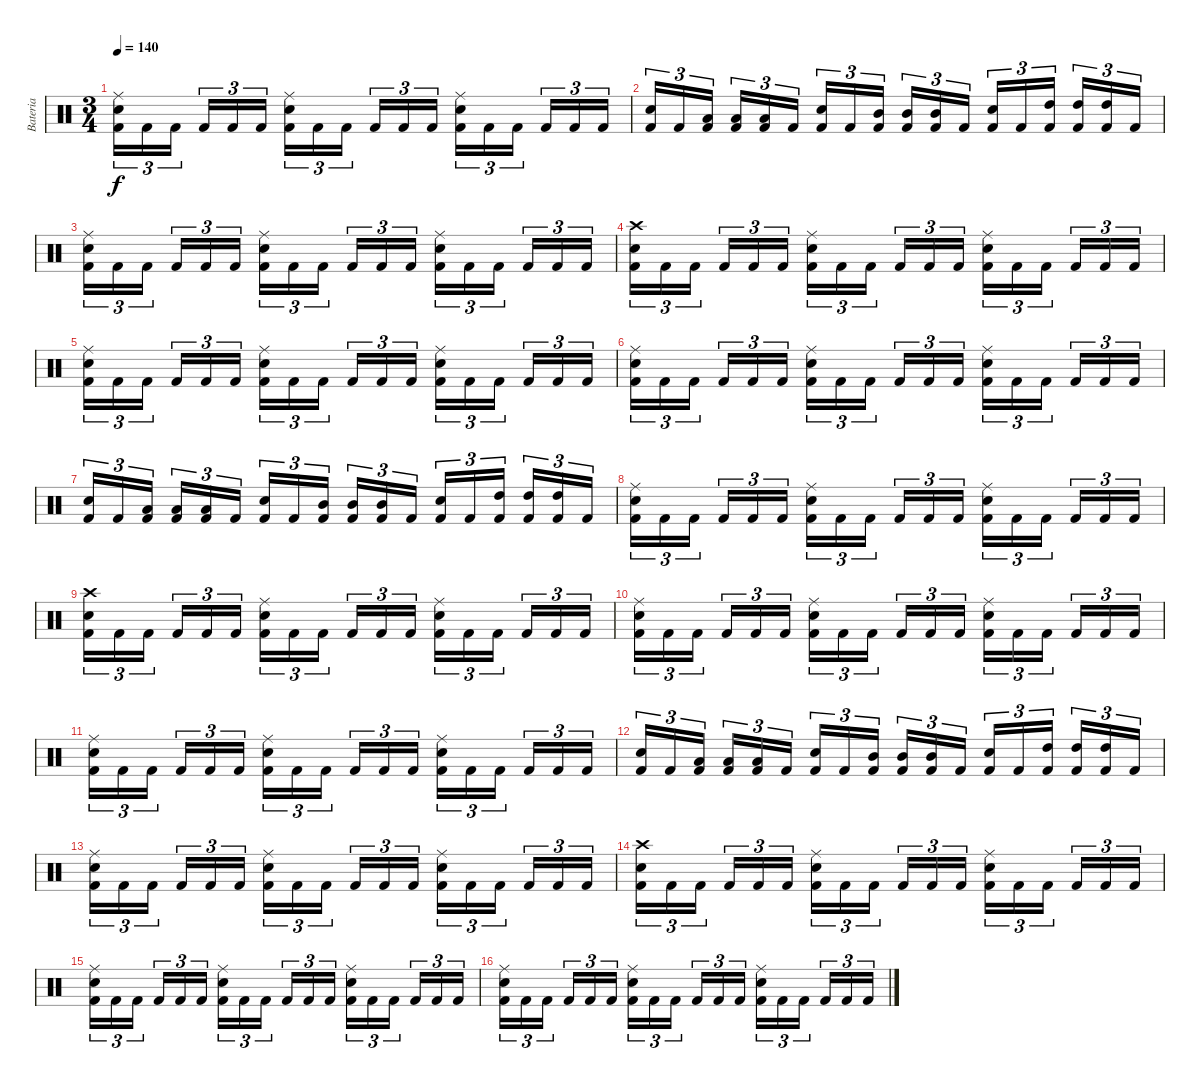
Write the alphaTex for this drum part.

\track ("Bateria" "Bateria") {instrument percussion}
\staff {score}
\articulation defaults
\ts (3 4)
\tempo 140
\clef neutral
\ks c
("Kick (hit) 2" "Electric Snare (hit)" "Ride (middle)").16{tu (3 2) dy f} "Kick (hit) 2".16{tu (3 2)} "Kick (hit) 2".16{tu (3 2)} "Kick (hit) 2".16{tu (3 2)} "Kick (hit) 2".16{tu (3 2)} "Kick (hit) 2".16{tu (3 2)} ("Kick (hit) 2" "Electric Snare (hit)" "Ride (middle)").16{tu (3 2)} "Kick (hit) 2".16{tu (3 2)} "Kick (hit) 2".16{tu (3 2)} "Kick (hit) 2".16{tu (3 2)} "Kick (hit) 2".16{tu (3 2)} "Kick (hit) 2".16{tu (3 2)} ("Kick (hit) 2" "Electric Snare (hit)" "Ride (middle)").16{tu (3 2)} "Kick (hit) 2".16{tu (3 2)} "Kick (hit) 2".16{tu (3 2)} "Kick (hit) 2".16{tu (3 2)} "Kick (hit) 2".16{tu (3 2)} "Kick (hit) 2".16{tu (3 2)} |
("Kick (hit) 2" "Electric Snare (hit)").16{tu (3 2)} "Kick (hit) 2".16{tu (3 2)} ("Kick (hit) 2" "Low Tom (hit)").16{tu (3 2)} ("Kick (hit) 2" "Low Tom (hit)").16{tu (3 2)} ("Kick (hit) 2" "Low Tom (hit)").16{tu (3 2)} "Kick (hit) 2".16{tu (3 2)} ("Kick (hit) 2" "Electric Snare (hit)").16{tu (3 2)} "Kick (hit) 2".16{tu (3 2)} ("Kick (hit) 2" "Mid Tom (hit)").16{tu (3 2)} ("Kick (hit) 2" "Mid Tom (hit)").16{tu (3 2)} ("Kick (hit) 2" "Mid Tom (hit)").16{tu (3 2)} "Kick (hit) 2".16{tu (3 2)} ("Kick (hit) 2" "Electric Snare (hit)").16{tu (3 2)} "Kick (hit) 2".16{tu (3 2)} ("Kick (hit) 2" "High Tom (hit)").16{tu (3 2)} ("Kick (hit) 2" "High Tom (hit)").16{tu (3 2)} ("Kick (hit) 2" "High Tom (hit)").16{tu (3 2)} "Kick (hit) 2".16{tu (3 2)} |
("Kick (hit) 2" "Electric Snare (hit)" "Ride (middle)").16{tu (3 2)} "Kick (hit) 2".16{tu (3 2)} "Kick (hit) 2".16{tu (3 2)} "Kick (hit) 2".16{tu (3 2)} "Kick (hit) 2".16{tu (3 2)} "Kick (hit) 2".16{tu (3 2)} ("Kick (hit) 2" "Electric Snare (hit)" "Ride (middle)").16{tu (3 2)} "Kick (hit) 2".16{tu (3 2)} "Kick (hit) 2".16{tu (3 2)} "Kick (hit) 2".16{tu (3 2)} "Kick (hit) 2".16{tu (3 2)} "Kick (hit) 2".16{tu (3 2)} ("Kick (hit) 2" "Electric Snare (hit)" "Ride (middle)").16{tu (3 2)} "Kick (hit) 2".16{tu (3 2)} "Kick (hit) 2".16{tu (3 2)} "Kick (hit) 2".16{tu (3 2)} "Kick (hit) 2".16{tu (3 2)} "Kick (hit) 2".16{tu (3 2)} |
("Kick (hit) 2" "Electric Snare (hit)" "Crash high (hit)").16{tu (3 2)} "Kick (hit) 2".16{tu (3 2)} "Kick (hit) 2".16{tu (3 2)} "Kick (hit) 2".16{tu (3 2)} "Kick (hit) 2".16{tu (3 2)} "Kick (hit) 2".16{tu (3 2)} ("Kick (hit) 2" "Electric Snare (hit)" "Ride (middle)").16{tu (3 2)} "Kick (hit) 2".16{tu (3 2)} "Kick (hit) 2".16{tu (3 2)} "Kick (hit) 2".16{tu (3 2)} "Kick (hit) 2".16{tu (3 2)} "Kick (hit) 2".16{tu (3 2)} ("Kick (hit) 2" "Electric Snare (hit)" "Ride (middle)").16{tu (3 2)} "Kick (hit) 2".16{tu (3 2)} "Kick (hit) 2".16{tu (3 2)} "Kick (hit) 2".16{tu (3 2)} "Kick (hit) 2".16{tu (3 2)} "Kick (hit) 2".16{tu (3 2)} |
("Kick (hit) 2" "Electric Snare (hit)" "Ride (middle)").16{tu (3 2)} "Kick (hit) 2".16{tu (3 2)} "Kick (hit) 2".16{tu (3 2)} "Kick (hit) 2".16{tu (3 2)} "Kick (hit) 2".16{tu (3 2)} "Kick (hit) 2".16{tu (3 2)} ("Kick (hit) 2" "Electric Snare (hit)" "Ride (middle)").16{tu (3 2)} "Kick (hit) 2".16{tu (3 2)} "Kick (hit) 2".16{tu (3 2)} "Kick (hit) 2".16{tu (3 2)} "Kick (hit) 2".16{tu (3 2)} "Kick (hit) 2".16{tu (3 2)} ("Kick (hit) 2" "Electric Snare (hit)" "Ride (middle)").16{tu (3 2)} "Kick (hit) 2".16{tu (3 2)} "Kick (hit) 2".16{tu (3 2)} "Kick (hit) 2".16{tu (3 2)} "Kick (hit) 2".16{tu (3 2)} "Kick (hit) 2".16{tu (3 2)} |
("Kick (hit) 2" "Electric Snare (hit)" "Ride (middle)").16{tu (3 2)} "Kick (hit) 2".16{tu (3 2)} "Kick (hit) 2".16{tu (3 2)} "Kick (hit) 2".16{tu (3 2)} "Kick (hit) 2".16{tu (3 2)} "Kick (hit) 2".16{tu (3 2)} ("Kick (hit) 2" "Electric Snare (hit)" "Ride (middle)").16{tu (3 2)} "Kick (hit) 2".16{tu (3 2)} "Kick (hit) 2".16{tu (3 2)} "Kick (hit) 2".16{tu (3 2)} "Kick (hit) 2".16{tu (3 2)} "Kick (hit) 2".16{tu (3 2)} ("Kick (hit) 2" "Electric Snare (hit)" "Ride (middle)").16{tu (3 2)} "Kick (hit) 2".16{tu (3 2)} "Kick (hit) 2".16{tu (3 2)} "Kick (hit) 2".16{tu (3 2)} "Kick (hit) 2".16{tu (3 2)} "Kick (hit) 2".16{tu (3 2)} |
("Kick (hit) 2" "Electric Snare (hit)").16{tu (3 2)} "Kick (hit) 2".16{tu (3 2)} ("Kick (hit) 2" "Low Tom (hit)").16{tu (3 2)} ("Kick (hit) 2" "Low Tom (hit)").16{tu (3 2)} ("Kick (hit) 2" "Low Tom (hit)").16{tu (3 2)} "Kick (hit) 2".16{tu (3 2)} ("Kick (hit) 2" "Electric Snare (hit)").16{tu (3 2)} "Kick (hit) 2".16{tu (3 2)} ("Kick (hit) 2" "Mid Tom (hit)").16{tu (3 2)} ("Kick (hit) 2" "Mid Tom (hit)").16{tu (3 2)} ("Kick (hit) 2" "Mid Tom (hit)").16{tu (3 2)} "Kick (hit) 2".16{tu (3 2)} ("Kick (hit) 2" "Electric Snare (hit)").16{tu (3 2)} "Kick (hit) 2".16{tu (3 2)} ("Kick (hit) 2" "High Tom (hit)").16{tu (3 2)} ("Kick (hit) 2" "High Tom (hit)").16{tu (3 2)} ("Kick (hit) 2" "High Tom (hit)").16{tu (3 2)} "Kick (hit) 2".16{tu (3 2)} |
("Kick (hit) 2" "Electric Snare (hit)" "Ride (middle)").16{tu (3 2)} "Kick (hit) 2".16{tu (3 2)} "Kick (hit) 2".16{tu (3 2)} "Kick (hit) 2".16{tu (3 2)} "Kick (hit) 2".16{tu (3 2)} "Kick (hit) 2".16{tu (3 2)} ("Kick (hit) 2" "Electric Snare (hit)" "Ride (middle)").16{tu (3 2)} "Kick (hit) 2".16{tu (3 2)} "Kick (hit) 2".16{tu (3 2)} "Kick (hit) 2".16{tu (3 2)} "Kick (hit) 2".16{tu (3 2)} "Kick (hit) 2".16{tu (3 2)} ("Kick (hit) 2" "Electric Snare (hit)" "Ride (middle)").16{tu (3 2)} "Kick (hit) 2".16{tu (3 2)} "Kick (hit) 2".16{tu (3 2)} "Kick (hit) 2".16{tu (3 2)} "Kick (hit) 2".16{tu (3 2)} "Kick (hit) 2".16{tu (3 2)} |
("Kick (hit) 2" "Electric Snare (hit)" "Crash high (hit)").16{tu (3 2)} "Kick (hit) 2".16{tu (3 2)} "Kick (hit) 2".16{tu (3 2)} "Kick (hit) 2".16{tu (3 2)} "Kick (hit) 2".16{tu (3 2)} "Kick (hit) 2".16{tu (3 2)} ("Kick (hit) 2" "Electric Snare (hit)" "Ride (middle)").16{tu (3 2)} "Kick (hit) 2".16{tu (3 2)} "Kick (hit) 2".16{tu (3 2)} "Kick (hit) 2".16{tu (3 2)} "Kick (hit) 2".16{tu (3 2)} "Kick (hit) 2".16{tu (3 2)} ("Kick (hit) 2" "Electric Snare (hit)" "Ride (middle)").16{tu (3 2)} "Kick (hit) 2".16{tu (3 2)} "Kick (hit) 2".16{tu (3 2)} "Kick (hit) 2".16{tu (3 2)} "Kick (hit) 2".16{tu (3 2)} "Kick (hit) 2".16{tu (3 2)} |
("Kick (hit) 2" "Electric Snare (hit)" "Ride (middle)").16{tu (3 2)} "Kick (hit) 2".16{tu (3 2)} "Kick (hit) 2".16{tu (3 2)} "Kick (hit) 2".16{tu (3 2)} "Kick (hit) 2".16{tu (3 2)} "Kick (hit) 2".16{tu (3 2)} ("Kick (hit) 2" "Electric Snare (hit)" "Ride (middle)").16{tu (3 2)} "Kick (hit) 2".16{tu (3 2)} "Kick (hit) 2".16{tu (3 2)} "Kick (hit) 2".16{tu (3 2)} "Kick (hit) 2".16{tu (3 2)} "Kick (hit) 2".16{tu (3 2)} ("Kick (hit) 2" "Electric Snare (hit)" "Ride (middle)").16{tu (3 2)} "Kick (hit) 2".16{tu (3 2)} "Kick (hit) 2".16{tu (3 2)} "Kick (hit) 2".16{tu (3 2)} "Kick (hit) 2".16{tu (3 2)} "Kick (hit) 2".16{tu (3 2)} |
("Kick (hit) 2" "Electric Snare (hit)" "Ride (middle)").16{tu (3 2)} "Kick (hit) 2".16{tu (3 2)} "Kick (hit) 2".16{tu (3 2)} "Kick (hit) 2".16{tu (3 2)} "Kick (hit) 2".16{tu (3 2)} "Kick (hit) 2".16{tu (3 2)} ("Kick (hit) 2" "Electric Snare (hit)" "Ride (middle)").16{tu (3 2)} "Kick (hit) 2".16{tu (3 2)} "Kick (hit) 2".16{tu (3 2)} "Kick (hit) 2".16{tu (3 2)} "Kick (hit) 2".16{tu (3 2)} "Kick (hit) 2".16{tu (3 2)} ("Kick (hit) 2" "Electric Snare (hit)" "Ride (middle)").16{tu (3 2)} "Kick (hit) 2".16{tu (3 2)} "Kick (hit) 2".16{tu (3 2)} "Kick (hit) 2".16{tu (3 2)} "Kick (hit) 2".16{tu (3 2)} "Kick (hit) 2".16{tu (3 2)} |
("Kick (hit) 2" "Electric Snare (hit)").16{tu (3 2)} "Kick (hit) 2".16{tu (3 2)} ("Kick (hit) 2" "Low Tom (hit)").16{tu (3 2)} ("Kick (hit) 2" "Low Tom (hit)").16{tu (3 2)} ("Kick (hit) 2" "Low Tom (hit)").16{tu (3 2)} "Kick (hit) 2".16{tu (3 2)} ("Kick (hit) 2" "Electric Snare (hit)").16{tu (3 2)} "Kick (hit) 2".16{tu (3 2)} ("Kick (hit) 2" "Mid Tom (hit)").16{tu (3 2)} ("Kick (hit) 2" "Mid Tom (hit)").16{tu (3 2)} ("Kick (hit) 2" "Mid Tom (hit)").16{tu (3 2)} "Kick (hit) 2".16{tu (3 2)} ("Kick (hit) 2" "Electric Snare (hit)").16{tu (3 2)} "Kick (hit) 2".16{tu (3 2)} ("Kick (hit) 2" "High Tom (hit)").16{tu (3 2)} ("Kick (hit) 2" "High Tom (hit)").16{tu (3 2)} ("Kick (hit) 2" "High Tom (hit)").16{tu (3 2)} "Kick (hit) 2".16{tu (3 2)} |
("Kick (hit) 2" "Electric Snare (hit)" "Ride (middle)").16{tu (3 2)} "Kick (hit) 2".16{tu (3 2)} "Kick (hit) 2".16{tu (3 2)} "Kick (hit) 2".16{tu (3 2)} "Kick (hit) 2".16{tu (3 2)} "Kick (hit) 2".16{tu (3 2)} ("Kick (hit) 2" "Electric Snare (hit)" "Ride (middle)").16{tu (3 2)} "Kick (hit) 2".16{tu (3 2)} "Kick (hit) 2".16{tu (3 2)} "Kick (hit) 2".16{tu (3 2)} "Kick (hit) 2".16{tu (3 2)} "Kick (hit) 2".16{tu (3 2)} ("Kick (hit) 2" "Electric Snare (hit)" "Ride (middle)").16{tu (3 2)} "Kick (hit) 2".16{tu (3 2)} "Kick (hit) 2".16{tu (3 2)} "Kick (hit) 2".16{tu (3 2)} "Kick (hit) 2".16{tu (3 2)} "Kick (hit) 2".16{tu (3 2)} |
("Kick (hit) 2" "Electric Snare (hit)" "Crash high (hit)").16{tu (3 2)} "Kick (hit) 2".16{tu (3 2)} "Kick (hit) 2".16{tu (3 2)} "Kick (hit) 2".16{tu (3 2)} "Kick (hit) 2".16{tu (3 2)} "Kick (hit) 2".16{tu (3 2)} ("Kick (hit) 2" "Electric Snare (hit)" "Ride (middle)").16{tu (3 2)} "Kick (hit) 2".16{tu (3 2)} "Kick (hit) 2".16{tu (3 2)} "Kick (hit) 2".16{tu (3 2)} "Kick (hit) 2".16{tu (3 2)} "Kick (hit) 2".16{tu (3 2)} ("Kick (hit) 2" "Electric Snare (hit)" "Ride (middle)").16{tu (3 2)} "Kick (hit) 2".16{tu (3 2)} "Kick (hit) 2".16{tu (3 2)} "Kick (hit) 2".16{tu (3 2)} "Kick (hit) 2".16{tu (3 2)} "Kick (hit) 2".16{tu (3 2)} |
("Kick (hit) 2" "Electric Snare (hit)" "Ride (middle)").16{tu (3 2)} "Kick (hit) 2".16{tu (3 2)} "Kick (hit) 2".16{tu (3 2)} "Kick (hit) 2".16{tu (3 2)} "Kick (hit) 2".16{tu (3 2)} "Kick (hit) 2".16{tu (3 2)} ("Kick (hit) 2" "Electric Snare (hit)" "Ride (middle)").16{tu (3 2)} "Kick (hit) 2".16{tu (3 2)} "Kick (hit) 2".16{tu (3 2)} "Kick (hit) 2".16{tu (3 2)} "Kick (hit) 2".16{tu (3 2)} "Kick (hit) 2".16{tu (3 2)} ("Kick (hit) 2" "Electric Snare (hit)" "Ride (middle)").16{tu (3 2)} "Kick (hit) 2".16{tu (3 2)} "Kick (hit) 2".16{tu (3 2)} "Kick (hit) 2".16{tu (3 2)} "Kick (hit) 2".16{tu (3 2)} "Kick (hit) 2".16{tu (3 2)} |
("Kick (hit) 2" "Electric Snare (hit)" "Ride (middle)").16{tu (3 2)} "Kick (hit) 2".16{tu (3 2)} "Kick (hit) 2".16{tu (3 2)} "Kick (hit) 2".16{tu (3 2)} "Kick (hit) 2".16{tu (3 2)} "Kick (hit) 2".16{tu (3 2)} ("Kick (hit) 2" "Electric Snare (hit)" "Ride (middle)").16{tu (3 2)} "Kick (hit) 2".16{tu (3 2)} "Kick (hit) 2".16{tu (3 2)} "Kick (hit) 2".16{tu (3 2)} "Kick (hit) 2".16{tu (3 2)} "Kick (hit) 2".16{tu (3 2)} ("Kick (hit) 2" "Electric Snare (hit)" "Ride (middle)").16{tu (3 2)} "Kick (hit) 2".16{tu (3 2)} "Kick (hit) 2".16{tu (3 2)} "Kick (hit) 2".16{tu (3 2)} "Kick (hit) 2".16{tu (3 2)} "Kick (hit) 2".16{tu (3 2)}
